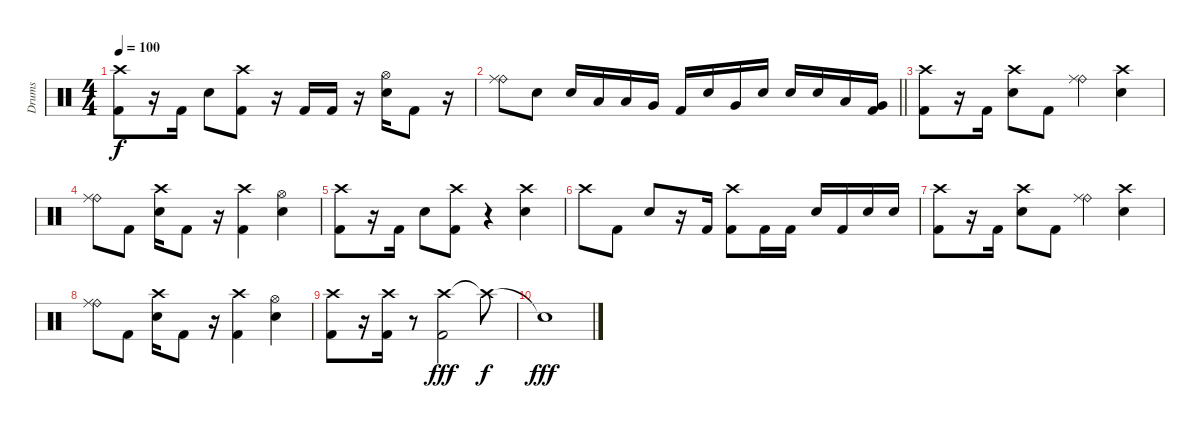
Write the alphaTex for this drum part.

\track ("Drums" "Drums") {instrument percussion}
\staff {score}
\articulation defaults
\ts (4 4)
\tempo 100
\clef neutral
\ks c
("Crash high (hit)" "Kick (hit) 2").8{dy f} r.16 "Kick (hit) 2".16 "Electric Snare (hit)".8 ("Crash high (hit)" "Kick (hit) 2").8 r.16 "Kick (hit) 2".16 "Kick (hit) 2".16 r.16 ("Hi-Hat (open)" "Electric Snare (hit)").16 "Kick (hit) 2".8 r.16 |
\barLineRight lightlight
("Ride (bell)" "Ride (middle)").8 "Electric Snare (hit)".8 "Electric Snare (hit)".16 "Low Tom (hit)".16 "Low Tom (hit)".16 "Very Low Tom (hit)".16 "Kick (hit) 2".16 "Electric Snare (hit)".16 "Very Low Tom (hit)".16 "Electric Snare (hit)".16 "Electric Snare (hit)".16 "Electric Snare (hit)".16 "Low Tom (hit)".16 ("Very Low Tom (hit)" "Kick (hit) 2").16 |
("Crash high (hit)" "Kick (hit) 2").8 r.16 "Kick (hit) 2".16 ("Crash high (hit)" "Electric Snare (hit)").8 "Kick (hit) 2".8 ("Ride (bell)" "Ride (middle)").4 ("Crash high (hit)" "Electric Snare (hit)").4 |
("Ride (bell)" "Ride (middle)").8 "Kick (hit) 2".8 ("Crash high (hit)" "Electric Snare (hit)").16 "Kick (hit) 2".8 r.16 ("Crash high (hit)" "Kick (hit) 2").4 ("Hi-Hat (open)" "Electric Snare (hit)").4 |
("Crash high (hit)" "Kick (hit) 2").8 r.16 "Kick (hit) 2".16 "Electric Snare (hit)".8 ("Crash high (hit)" "Kick (hit) 2").8 r.4 ("Crash high (hit)" "Electric Snare (hit)").4 |
"Crash high (hit)".8 "Kick (hit) 2".8 "Electric Snare (hit)".8 r.16 "Kick (hit) 2".16 ("Crash high (hit)" "Kick (hit) 2").8 "Kick (hit) 2".16 "Kick (hit) 2".16 "Electric Snare (hit)".16 "Kick (hit) 2".16 "Electric Snare (hit)".16 "Electric Snare (hit)".16 |
("Crash high (hit)" "Kick (hit) 2").8 r.16 "Kick (hit) 2".16 ("Crash high (hit)" "Electric Snare (hit)").8 "Kick (hit) 2".8 ("Ride (bell)" "Ride (middle)").4 ("Crash high (hit)" "Electric Snare (hit)").4 |
("Ride (bell)" "Ride (middle)").8 "Kick (hit) 2".8 ("Crash high (hit)" "Electric Snare (hit)").16 "Kick (hit) 2".8 r.16 ("Crash high (hit)" "Kick (hit) 2").4 ("Hi-Hat (open)" "Electric Snare (hit)").4 |
("Crash high (hit)" "Kick (hit) 2").8 r.16 ("Crash high (hit)" "Kick (hit) 2").16 r.8 ("Crash high (hit)" "Kick (hit) 2").2{dy fff} "Crash high (hit)"{t}.8{dy f} |
"Snare (hit)"{t}.1{dy fff}
